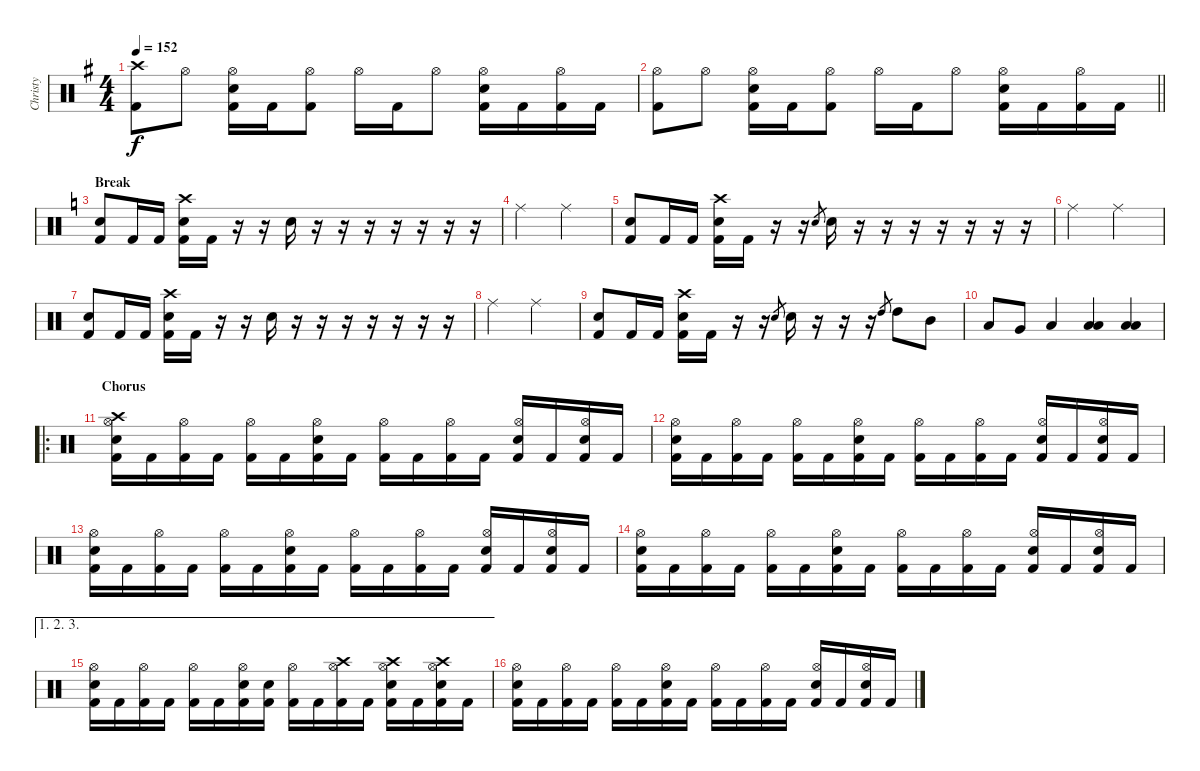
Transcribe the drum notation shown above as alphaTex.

\track ("Christy" "Christy") {instrument percussion}
\staff {score}
\articulation defaults
\ts (4 4)
\tempo 152
\clef neutral
\ks g
("Crash high (hit)" "Kick (hit) 2").8{dy f} "Hi-Hat (open)".8 ("Hi-Hat (open)" "Snare (hit) 2" "Kick (hit) 2").16 "Kick (hit) 2".16 ("Hi-Hat (open)" "Kick (hit) 2").8 "Hi-Hat (open)".16 "Kick (hit) 2".16 "Hi-Hat (open)".8 ("Hi-Hat (open)" "Snare (hit) 2" "Kick (hit) 2").16 "Kick (hit) 2".16 ("Hi-Hat (open)" "Kick (hit) 2").16 "Kick (hit) 2".16 |
\barLineRight lightlight
("Hi-Hat (open)" "Kick (hit) 2").8 "Hi-Hat (open)".8 ("Hi-Hat (open)" "Snare (hit) 2" "Kick (hit) 2").16 "Kick (hit) 2".16 ("Hi-Hat (open)" "Kick (hit) 2").8 "Hi-Hat (open)".16 "Kick (hit) 2".16 "Hi-Hat (open)".8 ("Hi-Hat (open)" "Snare (hit) 2" "Kick (hit) 2").16 "Kick (hit) 2".16 ("Hi-Hat (open)" "Kick (hit) 2").16 "Kick (hit) 2".16 |
\section ("" "Break")
\ks c
("Snare (hit) 2" "Kick (hit) 2").8 "Kick (hit) 2".16 "Kick (hit) 2".16 ("Crash high (hit)" "Snare (hit) 2" "Kick (hit) 2").16 "Kick (hit) 2".16 r.16 r.16 "Snare (hit) 2".16 r.16 r.16 r.16 r.16 r.16 r.16 r.16 |
"Ride (middle)".2 "Ride (middle)".2 |
("Snare (hit) 2" "Kick (hit) 2").8 "Kick (hit) 2".16 "Kick (hit) 2".16 ("Crash high (hit)" "Snare (hit) 2" "Kick (hit) 2").16 "Kick (hit) 2".16 r.16 r.16 "Snare (hit) 2".8{gr} "Snare (hit) 2".16 r.16 r.16 r.16 r.16 r.16 r.16 r.16 |
"Ride (middle)".2 "Ride (middle)".2 |
("Snare (hit) 2" "Kick (hit) 2").8 "Kick (hit) 2".16 "Kick (hit) 2".16 ("Crash high (hit)" "Snare (hit) 2" "Kick (hit) 2").16 "Kick (hit) 2".16 r.16 r.16 "Snare (hit) 2".16 r.16 r.16 r.16 r.16 r.16 r.16 r.16 |
"Ride (middle)".2 "Ride (middle)".2 |
("Snare (hit) 2" "Kick (hit) 2").8 "Kick (hit) 2".16 "Kick (hit) 2".16 ("Crash high (hit)" "Snare (hit) 2" "Kick (hit) 2").16 "Kick (hit) 2".16 r.16 r.16 "Snare (hit) 2".8{gr} "Snare (hit) 2".16 r.16 r.16 r.16 "High Tom (hit)".8{gr} "High Tom (hit)".8 "Mid Tom (hit)".8 |
"Low Tom (hit)".8 "Very Low Tom (hit)".8 "Low Floor Tom (hit)".4 ("Low Floor Tom (hit)" "Low Tom (hit)").4 ("Low Floor Tom (hit)" "Low Tom (hit)").4 |
\ro
\section ("" "Chorus")
("Crash high (hit)" "Snare (hit) 2" "Hi-Hat (open)" "Kick (hit) 2").16 "Kick (hit) 2".16 ("Hi-Hat (open)" "Kick (hit) 2").16 "Kick (hit) 2".16 ("Hi-Hat (open)" "Kick (hit) 2").16 "Kick (hit) 2".16 ("Snare (hit) 2" "Hi-Hat (open)" "Kick (hit) 2").16 "Kick (hit) 2".16 ("Hi-Hat (open)" "Kick (hit) 2").16 "Kick (hit) 2".16 ("Hi-Hat (open)" "Kick (hit) 2").16 "Kick (hit) 2".16 ("Snare (hit) 2" "Hi-Hat (open)" "Kick (hit) 2").16 "Kick (hit) 2".16 ("Snare (hit) 2" "Hi-Hat (open)" "Kick (hit) 2").16 "Kick (hit) 2".16 |
("Snare (hit) 2" "Hi-Hat (open)" "Kick (hit) 2").16 "Kick (hit) 2".16 ("Hi-Hat (open)" "Kick (hit) 2").16 "Kick (hit) 2".16 ("Hi-Hat (open)" "Kick (hit) 2").16 "Kick (hit) 2".16 ("Snare (hit) 2" "Hi-Hat (open)" "Kick (hit) 2").16 "Kick (hit) 2".16 ("Hi-Hat (open)" "Kick (hit) 2").16 "Kick (hit) 2".16 ("Hi-Hat (open)" "Kick (hit) 2").16 "Kick (hit) 2".16 ("Snare (hit) 2" "Hi-Hat (open)" "Kick (hit) 2").16 "Kick (hit) 2".16 ("Snare (hit) 2" "Hi-Hat (open)" "Kick (hit) 2").16 "Kick (hit) 2".16 |
("Snare (hit) 2" "Hi-Hat (open)" "Kick (hit) 2").16 "Kick (hit) 2".16 ("Hi-Hat (open)" "Kick (hit) 2").16 "Kick (hit) 2".16 ("Hi-Hat (open)" "Kick (hit) 2").16 "Kick (hit) 2".16 ("Snare (hit) 2" "Hi-Hat (open)" "Kick (hit) 2").16 "Kick (hit) 2".16 ("Hi-Hat (open)" "Kick (hit) 2").16 "Kick (hit) 2".16 ("Hi-Hat (open)" "Kick (hit) 2").16 "Kick (hit) 2".16 ("Snare (hit) 2" "Hi-Hat (open)" "Kick (hit) 2").16 "Kick (hit) 2".16 ("Snare (hit) 2" "Hi-Hat (open)" "Kick (hit) 2").16 "Kick (hit) 2".16 |
("Snare (hit) 2" "Hi-Hat (open)" "Kick (hit) 2").16 "Kick (hit) 2".16 ("Hi-Hat (open)" "Kick (hit) 2").16 "Kick (hit) 2".16 ("Hi-Hat (open)" "Kick (hit) 2").16 "Kick (hit) 2".16 ("Snare (hit) 2" "Hi-Hat (open)" "Kick (hit) 2").16 "Kick (hit) 2".16 ("Hi-Hat (open)" "Kick (hit) 2").16 "Kick (hit) 2".16 ("Hi-Hat (open)" "Kick (hit) 2").16 "Kick (hit) 2".16 ("Snare (hit) 2" "Hi-Hat (open)" "Kick (hit) 2").16 "Kick (hit) 2".16 ("Snare (hit) 2" "Hi-Hat (open)" "Kick (hit) 2").16 "Kick (hit) 2".16 |
\ae (1 2 3)
("Snare (hit) 2" "Hi-Hat (open)" "Kick (hit) 2").16 "Kick (hit) 2".16 ("Hi-Hat (open)" "Kick (hit) 2").16 "Kick (hit) 2".16 ("Hi-Hat (open)" "Kick (hit) 2").16 "Kick (hit) 2".16 ("Snare (hit) 2" "Hi-Hat (open)" "Kick (hit) 2").16 ("Snare (hit) 2" "Kick (hit) 2").16 ("Hi-Hat (open)" "Kick (hit) 2").16 "Kick (hit) 2".16 ("Crash high (hit)" "Hi-Hat (open)" "Kick (hit) 2").16 "Kick (hit) 2".16 ("Crash high (hit)" "Snare (hit) 2" "Hi-Hat (open)" "Kick (hit) 2").16 "Kick (hit) 2".16 ("Crash high (hit)" "Snare (hit) 2" "Hi-Hat (open)" "Kick (hit) 2").16 "Kick (hit) 2".16 |
("Snare (hit) 2" "Hi-Hat (open)" "Kick (hit) 2").16 "Kick (hit) 2".16 ("Hi-Hat (open)" "Kick (hit) 2").16 "Kick (hit) 2".16 ("Hi-Hat (open)" "Kick (hit) 2").16 "Kick (hit) 2".16 ("Snare (hit) 2" "Hi-Hat (open)" "Kick (hit) 2").16 "Kick (hit) 2".16 ("Hi-Hat (open)" "Kick (hit) 2").16 "Kick (hit) 2".16 ("Hi-Hat (open)" "Kick (hit) 2").16 "Kick (hit) 2".16 ("Snare (hit) 2" "Hi-Hat (open)" "Kick (hit) 2").16 "Kick (hit) 2".16 ("Snare (hit) 2" "Hi-Hat (open)" "Kick (hit) 2").16 "Kick (hit) 2".16
